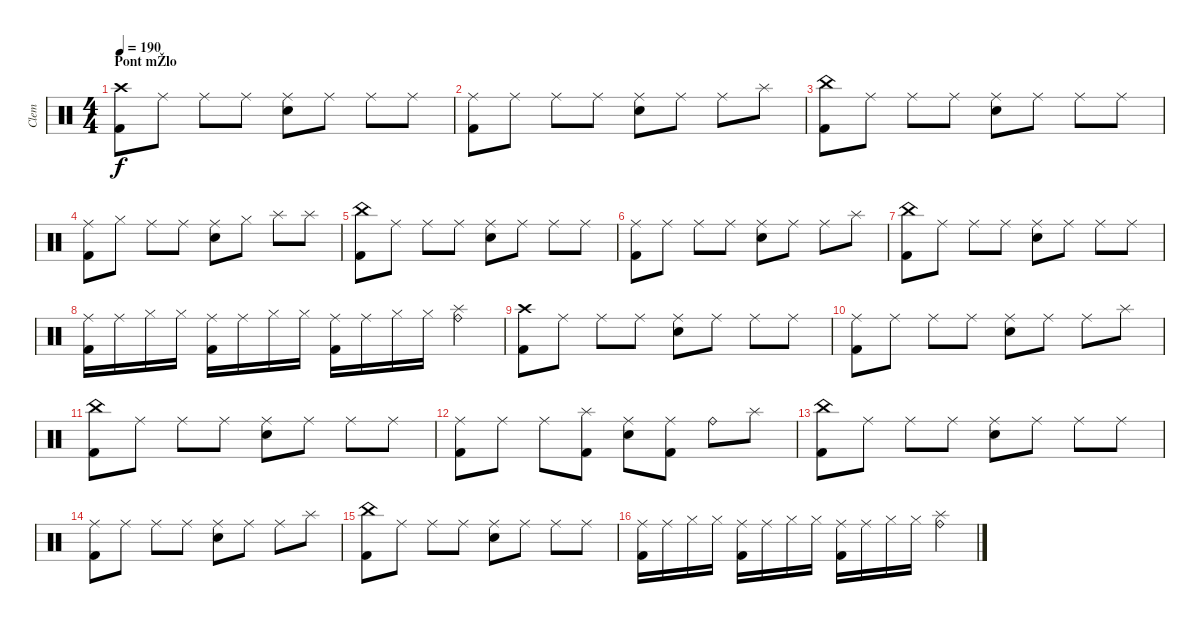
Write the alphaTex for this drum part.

\track ("Clem" "Clem") {instrument percussion}
\staff {score}
\articulation defaults
\ts (4 4)
\section ("" "Pont mŽlo")
\tempo 190
\clef neutral
\ks c
("Crash high (hit)" "Kick (hit) 2").8{dy f} "Ride (middle)".8 "Ride (middle)".8 "Ride (middle)".8 ("Ride (middle)" "Electric Snare (hit)").8 "Ride (middle)".8 "Ride (middle)".8 "Ride (middle)".8 |
("Ride (middle)" "Kick (hit) 2").8 "Ride (middle)".8 "Ride (middle)".8 "Ride (middle)".8 ("Ride (middle)" "Electric Snare (hit)").8 "Ride (middle)".8 "Ride (middle)".8 "Splash (hit)".8 |
("China (hit)" "Kick (hit) 2").8 "Ride (middle)".8 "Ride (middle)".8 "Ride (middle)".8 ("Ride (middle)" "Electric Snare (hit)").8 "Ride (middle)".8 "Ride (middle)".8 "Ride (middle)".8 |
("Ride (middle)" "Kick (hit) 2").8 "Hi-Hat (closed)".8 "Ride (middle)".8 "Ride (middle)".8 ("Ride (middle)" "Electric Snare (hit)").8 "Hi-Hat (closed)".8 "Splash (hit)".8 "Splash (hit)".8 |
("China (hit)" "Kick (hit) 2").8 "Ride (middle)".8 "Ride (middle)".8 "Ride (middle)".8 ("Ride (middle)" "Electric Snare (hit)").8 "Ride (middle)".8 "Ride (middle)".8 "Ride (middle)".8 |
("Ride (middle)" "Kick (hit) 2").8 "Ride (middle)".8 "Ride (middle)".8 "Ride (middle)".8 ("Ride (middle)" "Electric Snare (hit)").8 "Ride (middle)".8 "Ride (middle)".8 "Splash (hit)".8 |
("China (hit)" "Kick (hit) 2").8 "Ride (middle)".8 "Ride (middle)".8 "Ride (middle)".8 ("Ride (middle)" "Electric Snare (hit)").8 "Ride (middle)".8 "Ride (middle)".8 "Ride (middle)".8 |
("Ride (middle)" "Kick (hit) 2").16 "Ride (middle)".16 "Hi-Hat (closed)".16 "Hi-Hat (closed)".16 ("Ride (middle)" "Kick (hit) 2").16 "Ride (middle)".16 "Hi-Hat (closed)".16 "Hi-Hat (closed)".16 ("Ride (middle)" "Kick (hit) 2").16 "Ride (middle)".16 "Hi-Hat (closed)".16 "Hi-Hat (closed)".16 ("Ride (bell)" "Splash (hit)").4 |
("Crash high (hit)" "Kick (hit) 2").8 "Ride (middle)".8 "Ride (middle)".8 "Ride (middle)".8 ("Ride (middle)" "Electric Snare (hit)").8 "Ride (middle)".8 "Ride (middle)".8 "Ride (middle)".8 |
("Ride (middle)" "Kick (hit) 2").8 "Ride (middle)".8 "Ride (middle)".8 "Ride (middle)".8 ("Ride (middle)" "Electric Snare (hit)").8 "Ride (middle)".8 "Ride (middle)".8 "Splash (hit)".8 |
("China (hit)" "Kick (hit) 2").8 "Ride (middle)".8 "Ride (middle)".8 "Ride (middle)".8 ("Ride (middle)" "Electric Snare (hit)").8 "Ride (middle)".8 "Ride (middle)".8 "Ride (middle)".8 |
("Ride (middle)" "Kick (hit) 2").8 "Ride (middle)".8 "Ride (middle)".8 ("Splash (hit)" "Kick (hit) 2").8 ("Ride (middle)" "Electric Snare (hit)").8 ("Ride (middle)" "Kick (hit) 2").8 "Ride (bell)".8 "Splash (hit)".8 |
("China (hit)" "Kick (hit) 2").8 "Ride (middle)".8 "Ride (middle)".8 "Ride (middle)".8 ("Ride (middle)" "Electric Snare (hit)").8 "Ride (middle)".8 "Ride (middle)".8 "Ride (middle)".8 |
("Ride (middle)" "Kick (hit) 2").8 "Ride (middle)".8 "Ride (middle)".8 "Ride (middle)".8 ("Ride (middle)" "Electric Snare (hit)").8 "Ride (middle)".8 "Ride (middle)".8 "Splash (hit)".8 |
("China (hit)" "Kick (hit) 2").8 "Ride (middle)".8 "Ride (middle)".8 "Ride (middle)".8 ("Ride (middle)" "Electric Snare (hit)").8 "Ride (middle)".8 "Ride (middle)".8 "Ride (middle)".8 |
("Ride (middle)" "Kick (hit) 2").16 "Ride (middle)".16 "Hi-Hat (closed)".16 "Hi-Hat (closed)".16 ("Ride (middle)" "Kick (hit) 2").16 "Ride (middle)".16 "Hi-Hat (closed)".16 "Hi-Hat (closed)".16 ("Ride (middle)" "Kick (hit) 2").16 "Ride (middle)".16 "Hi-Hat (closed)".16 "Hi-Hat (closed)".16 ("Ride (bell)" "Splash (hit)").4
